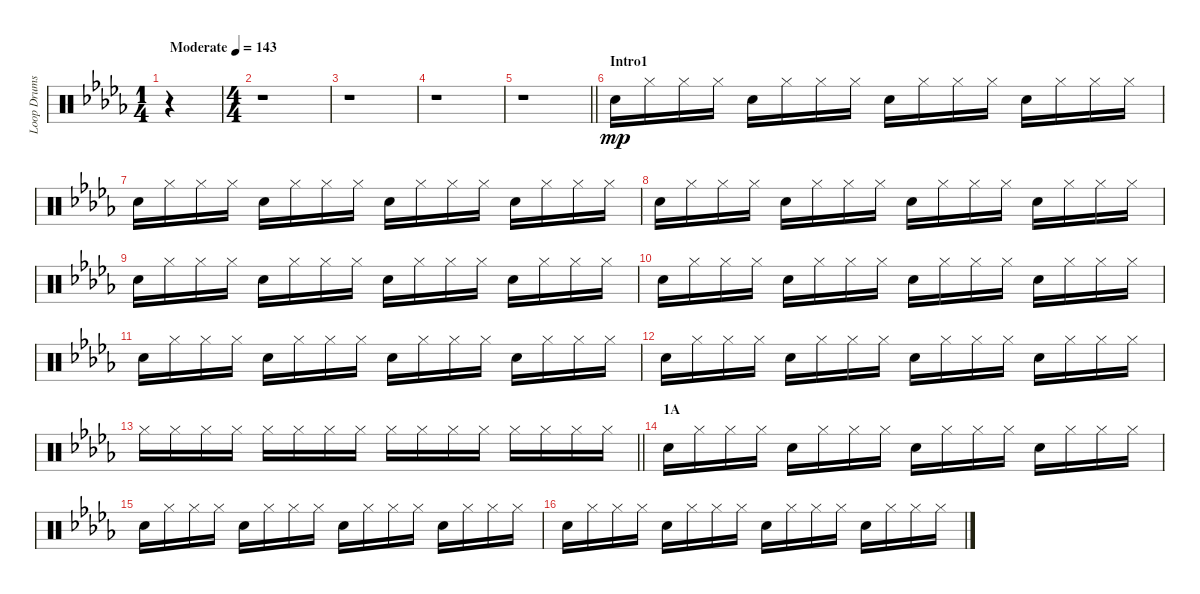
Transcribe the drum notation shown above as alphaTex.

\track ("Loop Drums" "Loop Drums") {instrument percussion}
\staff {score}
\articulation defaults
\ts (1 4)
\tempo (143 "Moderate")
\clef neutral
\ks db
r.4{dy mp} |
\ts (4 4)
r.1 |
r.1 |
r.1 |
\barLineRight lightlight
r.1 |
\section ("" "Intro1")
"Electric Snare (hit)".16 "Hi-Hat (closed)".16 "Hi-Hat (closed)".16 "Hi-Hat (closed)".16 "Electric Snare (hit)".16 "Hi-Hat (closed)".16 "Hi-Hat (closed)".16 "Hi-Hat (closed)".16 "Electric Snare (hit)".16 "Hi-Hat (closed)".16 "Hi-Hat (closed)".16 "Hi-Hat (closed)".16 "Electric Snare (hit)".16 "Hi-Hat (closed)".16 "Hi-Hat (closed)".16 "Hi-Hat (closed)".16 |
"Electric Snare (hit)".16 "Hi-Hat (closed)".16 "Hi-Hat (closed)".16 "Hi-Hat (closed)".16 "Electric Snare (hit)".16 "Hi-Hat (closed)".16 "Hi-Hat (closed)".16 "Hi-Hat (closed)".16 "Electric Snare (hit)".16 "Hi-Hat (closed)".16 "Hi-Hat (closed)".16 "Hi-Hat (closed)".16 "Electric Snare (hit)".16 "Hi-Hat (closed)".16 "Hi-Hat (closed)".16 "Hi-Hat (closed)".16 |
"Electric Snare (hit)".16 "Hi-Hat (closed)".16 "Hi-Hat (closed)".16 "Hi-Hat (closed)".16 "Electric Snare (hit)".16 "Hi-Hat (closed)".16 "Hi-Hat (closed)".16 "Hi-Hat (closed)".16 "Electric Snare (hit)".16 "Hi-Hat (closed)".16 "Hi-Hat (closed)".16 "Hi-Hat (closed)".16 "Electric Snare (hit)".16 "Hi-Hat (closed)".16 "Hi-Hat (closed)".16 "Hi-Hat (closed)".16 |
"Electric Snare (hit)".16 "Hi-Hat (closed)".16 "Hi-Hat (closed)".16 "Hi-Hat (closed)".16 "Electric Snare (hit)".16 "Hi-Hat (closed)".16 "Hi-Hat (closed)".16 "Hi-Hat (closed)".16 "Electric Snare (hit)".16 "Hi-Hat (closed)".16 "Hi-Hat (closed)".16 "Hi-Hat (closed)".16 "Electric Snare (hit)".16 "Hi-Hat (closed)".16 "Hi-Hat (closed)".16 "Hi-Hat (closed)".16 |
"Electric Snare (hit)".16 "Hi-Hat (closed)".16 "Hi-Hat (closed)".16 "Hi-Hat (closed)".16 "Electric Snare (hit)".16 "Hi-Hat (closed)".16 "Hi-Hat (closed)".16 "Hi-Hat (closed)".16 "Electric Snare (hit)".16 "Hi-Hat (closed)".16 "Hi-Hat (closed)".16 "Hi-Hat (closed)".16 "Electric Snare (hit)".16 "Hi-Hat (closed)".16 "Hi-Hat (closed)".16 "Hi-Hat (closed)".16 |
"Electric Snare (hit)".16 "Hi-Hat (closed)".16 "Hi-Hat (closed)".16 "Hi-Hat (closed)".16 "Electric Snare (hit)".16 "Hi-Hat (closed)".16 "Hi-Hat (closed)".16 "Hi-Hat (closed)".16 "Electric Snare (hit)".16 "Hi-Hat (closed)".16 "Hi-Hat (closed)".16 "Hi-Hat (closed)".16 "Electric Snare (hit)".16 "Hi-Hat (closed)".16 "Hi-Hat (closed)".16 "Hi-Hat (closed)".16 |
"Electric Snare (hit)".16 "Hi-Hat (closed)".16 "Hi-Hat (closed)".16 "Hi-Hat (closed)".16 "Electric Snare (hit)".16 "Hi-Hat (closed)".16 "Hi-Hat (closed)".16 "Hi-Hat (closed)".16 "Electric Snare (hit)".16 "Hi-Hat (closed)".16 "Hi-Hat (closed)".16 "Hi-Hat (closed)".16 "Electric Snare (hit)".16 "Hi-Hat (closed)".16 "Hi-Hat (closed)".16 "Hi-Hat (closed)".16 |
\barLineRight lightlight "Hi-Hat (closed)".16 "Hi-Hat (closed)".16 "Hi-Hat (closed)".16 "Hi-Hat (closed)".16 "Hi-Hat (closed)".16 "Hi-Hat (closed)".16 "Hi-Hat (closed)".16 "Hi-Hat (closed)".16 "Hi-Hat (closed)".16 "Hi-Hat (closed)".16 "Hi-Hat (closed)".16 "Hi-Hat (closed)".16 "Hi-Hat (closed)".16 "Hi-Hat (closed)".16 "Hi-Hat (closed)".16 "Hi-Hat (closed)".16
|
\section ("" "1A")
"Electric Snare (hit)".16 "Hi-Hat (closed)".16 "Hi-Hat (closed)".16 "Hi-Hat (closed)".16 "Electric Snare (hit)".16 "Hi-Hat (closed)".16 "Hi-Hat (closed)".16 "Hi-Hat (closed)".16 "Electric Snare (hit)".16 "Hi-Hat (closed)".16 "Hi-Hat (closed)".16 "Hi-Hat (closed)".16 "Electric Snare (hit)".16 "Hi-Hat (closed)".16 "Hi-Hat (closed)".16 "Hi-Hat (closed)".16 |
"Electric Snare (hit)".16 "Hi-Hat (closed)".16 "Hi-Hat (closed)".16 "Hi-Hat (closed)".16 "Electric Snare (hit)".16 "Hi-Hat (closed)".16 "Hi-Hat (closed)".16 "Hi-Hat (closed)".16 "Electric Snare (hit)".16 "Hi-Hat (closed)".16 "Hi-Hat (closed)".16 "Hi-Hat (closed)".16 "Electric Snare (hit)".16 "Hi-Hat (closed)".16 "Hi-Hat (closed)".16 "Hi-Hat (closed)".16 |
"Electric Snare (hit)".16 "Hi-Hat (closed)".16 "Hi-Hat (closed)".16 "Hi-Hat (closed)".16 "Electric Snare (hit)".16 "Hi-Hat (closed)".16 "Hi-Hat (closed)".16 "Hi-Hat (closed)".16 "Electric Snare (hit)".16 "Hi-Hat (closed)".16 "Hi-Hat (closed)".16 "Hi-Hat (closed)".16 "Electric Snare (hit)".16 "Hi-Hat (closed)".16 "Hi-Hat (closed)".16 "Hi-Hat (closed)".16
